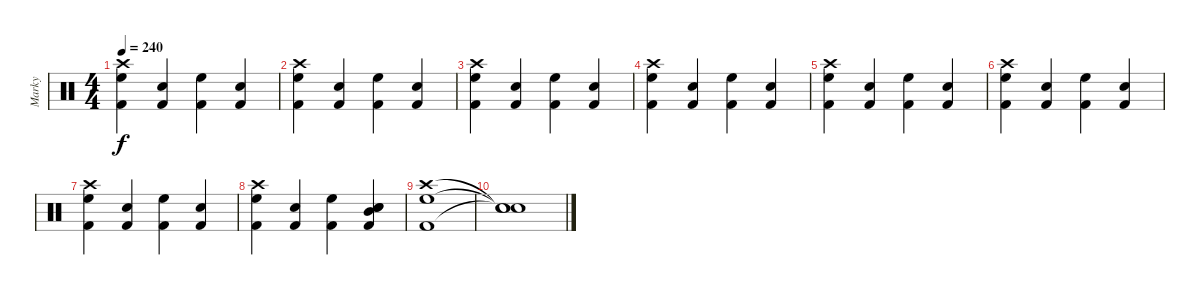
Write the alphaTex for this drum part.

\track ("Marky" "Marky") {instrument percussion}
\staff {score}
\articulation defaults
\ts (4 4)
\tempo 240
\clef neutral
\ks c
("Crash high (hit)" "High Floor Tom (hit)" "Kick (hit) 2").4{dy f} ("Electric Snare (hit)" "Kick (hit) 2").4 ("High Floor Tom (hit)" "Kick (hit) 2").4 ("Electric Snare (hit)" "Kick (hit) 2").4 |
("Crash high (hit)" "High Floor Tom (hit)" "Kick (hit) 2").4 ("Electric Snare (hit)" "Kick (hit) 2").4 ("High Floor Tom (hit)" "Kick (hit) 2").4 ("Electric Snare (hit)" "Kick (hit) 2").4 |
("Crash high (hit)" "High Floor Tom (hit)" "Kick (hit) 2").4 ("Electric Snare (hit)" "Kick (hit) 2").4 ("High Floor Tom (hit)" "Kick (hit) 2").4 ("Electric Snare (hit)" "Kick (hit) 2").4 |
("Crash high (hit)" "High Floor Tom (hit)" "Kick (hit) 2").4 ("Electric Snare (hit)" "Kick (hit) 2").4 ("High Floor Tom (hit)" "Kick (hit) 2").4 ("Electric Snare (hit)" "Kick (hit) 2").4 |
("Crash high (hit)" "High Floor Tom (hit)" "Kick (hit) 2").4 ("Electric Snare (hit)" "Kick (hit) 2").4 ("High Floor Tom (hit)" "Kick (hit) 2").4 ("Electric Snare (hit)" "Kick (hit) 2").4 |
("Crash high (hit)" "High Floor Tom (hit)" "Kick (hit) 2").4 ("Electric Snare (hit)" "Kick (hit) 2").4 ("High Floor Tom (hit)" "Kick (hit) 2").4 ("Electric Snare (hit)" "Kick (hit) 2").4 |
("Crash high (hit)" "High Floor Tom (hit)" "Kick (hit) 2").4 ("Electric Snare (hit)" "Kick (hit) 2").4 ("High Floor Tom (hit)" "Kick (hit) 2").4 ("Electric Snare (hit)" "Kick (hit) 2").4 |
("Crash high (hit)" "High Floor Tom (hit)" "Kick (hit) 2").4 ("Electric Snare (hit)" "Kick (hit) 2").4 ("High Floor Tom (hit)" "Kick (hit) 2").4 ("Mid Tom (hit)" "Snare (hit) 2" "Electric Snare (hit)" "Kick (hit) 2").4{bu 480} |
("Crash high (hit)" "High Floor Tom (hit)" "Kick (hit) 2").1 |
("Snare (hit)"{t} "Snare (hit)"{t} "Snare (hit)"{t}).1
